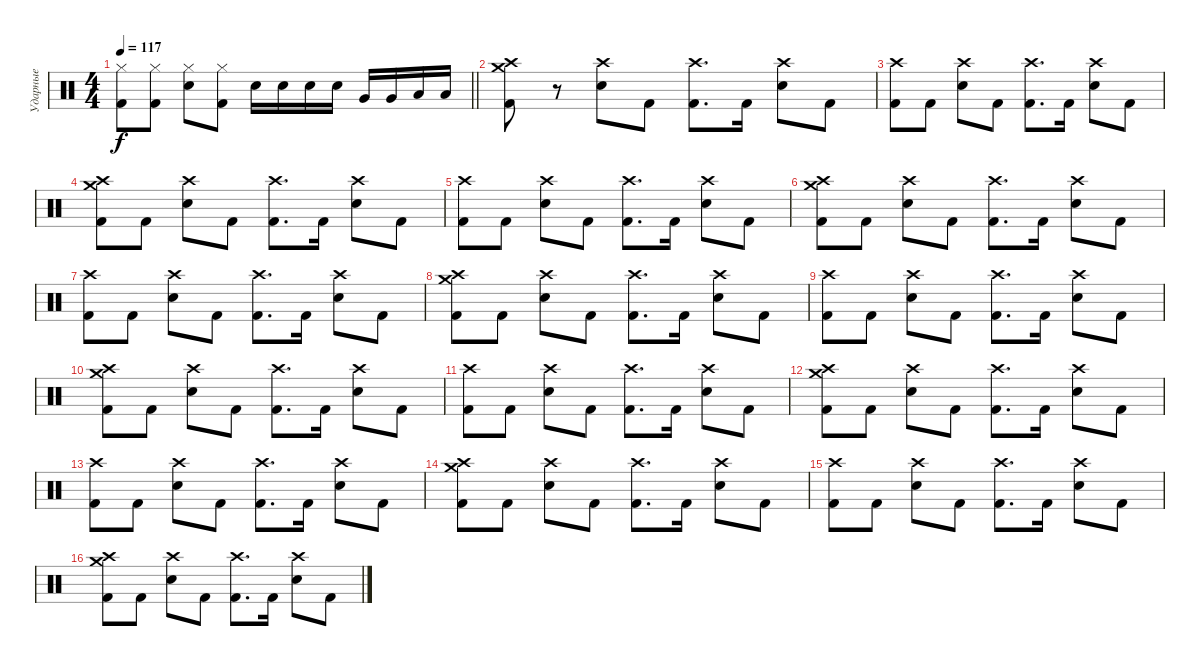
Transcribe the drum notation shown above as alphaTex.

\track ("Ударные" "Ударные") {instrument percussion}
\staff {score}
\articulation defaults
\ts (4 4)
\tempo 117
\clef neutral
\barLineRight lightlight
\ks c
("Hi-Hat (closed)" "Kick (hit) 2").8{dy f} ("Hi-Hat (closed)" "Kick (hit) 2").8 ("Hi-Hat (closed)" "Electric Snare (hit)").8 ("Hi-Hat (closed)" "Kick (hit) 2").8 "Electric Snare (hit)".16 "Electric Snare (hit)".16 "Electric Snare (hit)".16 "Electric Snare (hit)".16 "Very Low Tom (hit)".16 "Very Low Tom (hit)".16 "Low Tom (hit)".16 "Low Tom (hit)".16 |
("Crash medium (hit)" "Crash high (hit)" "Kick (hit) 2").8 r.8 ("Crash high (hit)" "Electric Snare (hit)").8 "Kick (hit) 2".8 ("Crash high (hit)" "Kick (hit) 2").8{d} "Kick (hit) 2".16 ("Crash high (hit)" "Electric Snare (hit)").8 "Kick (hit) 2".8 |
("Crash high (hit)" "Kick (hit) 2").8 "Kick (hit) 2".8 ("Crash high (hit)" "Electric Snare (hit)").8 "Kick (hit) 2".8 ("Crash high (hit)" "Kick (hit) 2").8{d} "Kick (hit) 2".16 ("Crash high (hit)" "Electric Snare (hit)").8 "Kick (hit) 2".8 |
("Crash medium (hit)" "Crash high (hit)" "Kick (hit) 2").8 "Kick (hit) 2".8 ("Crash high (hit)" "Electric Snare (hit)").8 "Kick (hit) 2".8 ("Crash high (hit)" "Kick (hit) 2").8{d} "Kick (hit) 2".16 ("Crash high (hit)" "Electric Snare (hit)").8 "Kick (hit) 2".8 |
("Crash high (hit)" "Kick (hit) 2").8 "Kick (hit) 2".8 ("Crash high (hit)" "Electric Snare (hit)").8 "Kick (hit) 2".8 ("Crash high (hit)" "Kick (hit) 2").8{d} "Kick (hit) 2".16 ("Crash high (hit)" "Electric Snare (hit)").8 "Kick (hit) 2".8 |
("Crash medium (hit)" "Crash high (hit)" "Kick (hit) 2").8 "Kick (hit) 2".8 ("Crash high (hit)" "Electric Snare (hit)").8 "Kick (hit) 2".8 ("Crash high (hit)" "Kick (hit) 2").8{d} "Kick (hit) 2".16 ("Crash high (hit)" "Electric Snare (hit)").8 "Kick (hit) 2".8 |
("Crash high (hit)" "Kick (hit) 2").8 "Kick (hit) 2".8 ("Crash high (hit)" "Electric Snare (hit)").8 "Kick (hit) 2".8 ("Crash high (hit)" "Kick (hit) 2").8{d} "Kick (hit) 2".16 ("Crash high (hit)" "Electric Snare (hit)").8 "Kick (hit) 2".8 |
("Crash medium (hit)" "Crash high (hit)" "Kick (hit) 2").8 "Kick (hit) 2".8 ("Crash high (hit)" "Electric Snare (hit)").8 "Kick (hit) 2".8 ("Crash high (hit)" "Kick (hit) 2").8{d} "Kick (hit) 2".16 ("Crash high (hit)" "Electric Snare (hit)").8 "Kick (hit) 2".8 |
("Crash high (hit)" "Kick (hit) 2").8 "Kick (hit) 2".8 ("Crash high (hit)" "Electric Snare (hit)").8 "Kick (hit) 2".8 ("Crash high (hit)" "Kick (hit) 2").8{d} "Kick (hit) 2".16 ("Crash high (hit)" "Electric Snare (hit)").8 "Kick (hit) 2".8 |
("Crash medium (hit)" "Crash high (hit)" "Kick (hit) 2").8 "Kick (hit) 2".8 ("Crash high (hit)" "Electric Snare (hit)").8 "Kick (hit) 2".8 ("Crash high (hit)" "Kick (hit) 2").8{d} "Kick (hit) 2".16 ("Crash high (hit)" "Electric Snare (hit)").8 "Kick (hit) 2".8 |
("Crash high (hit)" "Kick (hit) 2").8 "Kick (hit) 2".8 ("Crash high (hit)" "Electric Snare (hit)").8 "Kick (hit) 2".8 ("Crash high (hit)" "Kick (hit) 2").8{d} "Kick (hit) 2".16 ("Crash high (hit)" "Electric Snare (hit)").8 "Kick (hit) 2".8 |
("Crash medium (hit)" "Crash high (hit)" "Kick (hit) 2").8 "Kick (hit) 2".8 ("Crash high (hit)" "Electric Snare (hit)").8 "Kick (hit) 2".8 ("Crash high (hit)" "Kick (hit) 2").8{d} "Kick (hit) 2".16 ("Crash high (hit)" "Electric Snare (hit)").8 "Kick (hit) 2".8 |
("Crash high (hit)" "Kick (hit) 2").8 "Kick (hit) 2".8 ("Crash high (hit)" "Electric Snare (hit)").8 "Kick (hit) 2".8 ("Crash high (hit)" "Kick (hit) 2").8{d} "Kick (hit) 2".16 ("Crash high (hit)" "Electric Snare (hit)").8 "Kick (hit) 2".8 |
("Crash medium (hit)" "Crash high (hit)" "Kick (hit) 2").8 "Kick (hit) 2".8 ("Crash high (hit)" "Electric Snare (hit)").8 "Kick (hit) 2".8 ("Crash high (hit)" "Kick (hit) 2").8{d} "Kick (hit) 2".16 ("Crash high (hit)" "Electric Snare (hit)").8 "Kick (hit) 2".8 |
("Crash high (hit)" "Kick (hit) 2").8 "Kick (hit) 2".8 ("Crash high (hit)" "Electric Snare (hit)").8 "Kick (hit) 2".8 ("Crash high (hit)" "Kick (hit) 2").8{d} "Kick (hit) 2".16 ("Crash high (hit)" "Electric Snare (hit)").8 "Kick (hit) 2".8 |
("Crash medium (hit)" "Crash high (hit)" "Kick (hit) 2").8 "Kick (hit) 2".8 ("Crash high (hit)" "Electric Snare (hit)").8 "Kick (hit) 2".8 ("Crash high (hit)" "Kick (hit) 2").8{d} "Kick (hit) 2".16 ("Crash high (hit)" "Electric Snare (hit)").8 "Kick (hit) 2".8
